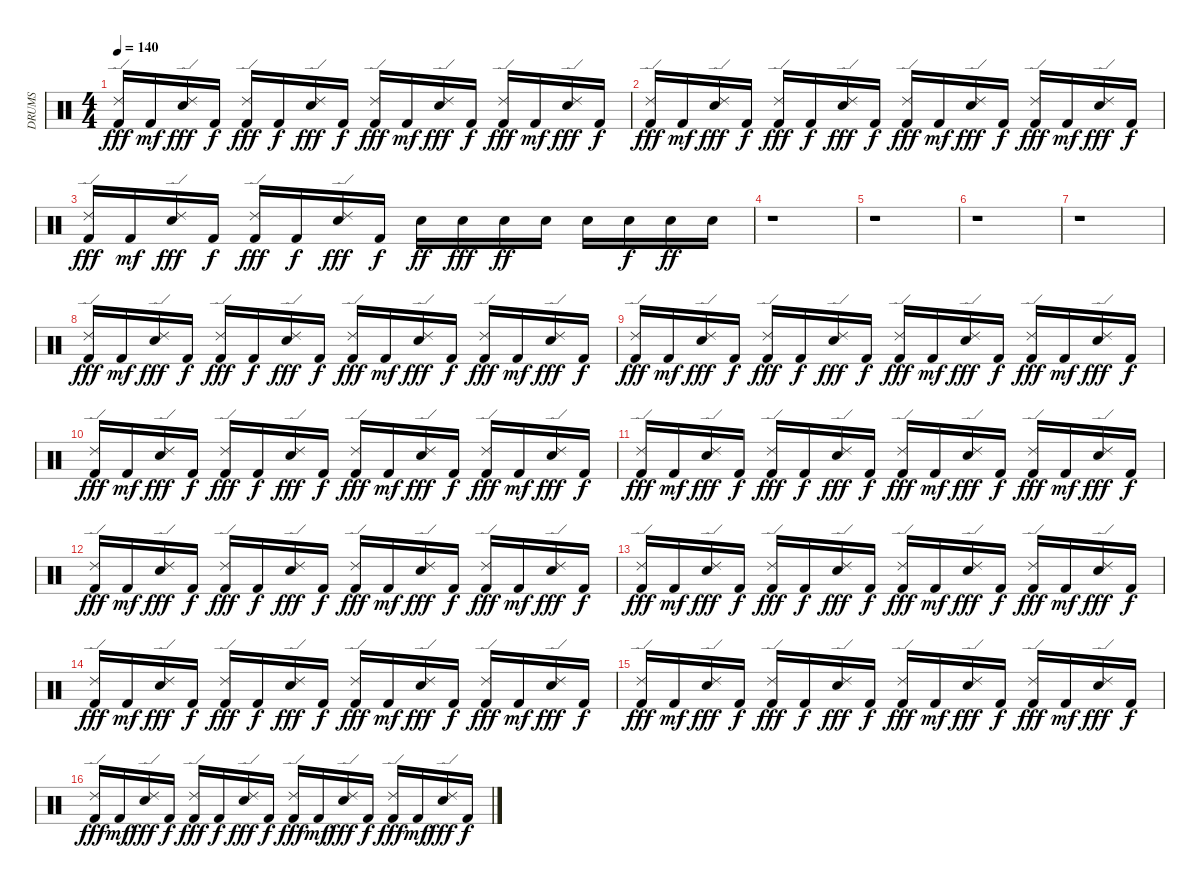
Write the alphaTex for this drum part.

\track ("DRUMS" "DRUMS") {instrument percussion}
\staff {score}
\articulation defaults
\ts (4 4)
\tempo 140
\clef neutral
\ks c
("Ride (edge) 2" "Kick (hit) 2").16{dy fff} "Kick (hit) 2".16{dy mf} ("Ride (edge) 2" "Electric Snare (hit)").16{dy fff} "Kick (hit) 2".16{dy f} ("Ride (edge) 2" "Kick (hit) 2").16{dy fff} "Kick (hit) 2".16{dy f} ("Ride (edge) 2" "Electric Snare (hit)").16{dy fff} "Kick (hit) 2".16{dy f} ("Ride (edge) 2" "Kick (hit) 2").16{dy fff} "Kick (hit) 2".16{dy mf} ("Ride (edge) 2" "Electric Snare (hit)").16{dy fff} "Kick (hit) 2".16{dy f} ("Ride (edge) 2" "Kick (hit) 2").16{dy fff} "Kick (hit) 2".16{dy mf} ("Electric Snare (hit)" "Ride (edge) 2").16{dy fff} "Kick (hit) 2".16{dy f} |
("Ride (edge) 2" "Kick (hit) 2").16{dy fff} "Kick (hit) 2".16{dy mf} ("Ride (edge) 2" "Electric Snare (hit)").16{dy fff} "Kick (hit) 2".16{dy f} ("Ride (edge) 2" "Kick (hit) 2").16{dy fff} "Kick (hit) 2".16{dy f} ("Ride (edge) 2" "Electric Snare (hit)").16{dy fff} "Kick (hit) 2".16{dy f} ("Ride (edge) 2" "Kick (hit) 2").16{dy fff} "Kick (hit) 2".16{dy mf} ("Ride (edge) 2" "Electric Snare (hit)").16{dy fff} "Kick (hit) 2".16{dy f} ("Ride (edge) 2" "Kick (hit) 2").16{dy fff} "Kick (hit) 2".16{dy mf} ("Electric Snare (hit)" "Ride (edge) 2").16{dy fff} "Kick (hit) 2".16{dy f} |
("Ride (edge) 2" "Kick (hit) 2").16{dy fff} "Kick (hit) 2".16{dy mf} ("Ride (edge) 2" "Electric Snare (hit)").16{dy fff} "Kick (hit) 2".16{dy f} ("Ride (edge) 2" "Kick (hit) 2").16{dy fff} "Kick (hit) 2".16{dy f} ("Ride (edge) 2" "Electric Snare (hit)").16{dy fff} "Kick (hit) 2".16{dy f} "Electric Snare (hit)".16{dy ff} "Electric Snare (hit)".16{dy fff} "Electric Snare (hit)".16{dy ff} "Electric Snare (hit)".16 "Electric Snare (hit)".16 "Electric Snare (hit)".16{dy f} "Electric Snare (hit)".16{dy ff} "Electric Snare (hit)".16 |
r.1 |
r.1 |
r.1 |
r.1 |
("Ride (edge) 2" "Kick (hit) 2").16{dy fff} "Kick (hit) 2".16{dy mf} ("Ride (edge) 2" "Electric Snare (hit)").16{dy fff} "Kick (hit) 2".16{dy f} ("Ride (edge) 2" "Kick (hit) 2").16{dy fff} "Kick (hit) 2".16{dy f} ("Ride (edge) 2" "Electric Snare (hit)").16{dy fff} "Kick (hit) 2".16{dy f} ("Ride (edge) 2" "Kick (hit) 2").16{dy fff} "Kick (hit) 2".16{dy mf} ("Ride (edge) 2" "Electric Snare (hit)").16{dy fff} "Kick (hit) 2".16{dy f} ("Ride (edge) 2" "Kick (hit) 2").16{dy fff} "Kick (hit) 2".16{dy mf} ("Electric Snare (hit)" "Ride (edge) 2").16{dy fff} "Kick (hit) 2".16{dy f} |
("Ride (edge) 2" "Kick (hit) 2").16{dy fff} "Kick (hit) 2".16{dy mf} ("Ride (edge) 2" "Electric Snare (hit)").16{dy fff} "Kick (hit) 2".16{dy f} ("Ride (edge) 2" "Kick (hit) 2").16{dy fff} "Kick (hit) 2".16{dy f} ("Ride (edge) 2" "Electric Snare (hit)").16{dy fff} "Kick (hit) 2".16{dy f} ("Ride (edge) 2" "Kick (hit) 2").16{dy fff} "Kick (hit) 2".16{dy mf} ("Ride (edge) 2" "Electric Snare (hit)").16{dy fff} "Kick (hit) 2".16{dy f} ("Ride (edge) 2" "Kick (hit) 2").16{dy fff} "Kick (hit) 2".16{dy mf} ("Electric Snare (hit)" "Ride (edge) 2").16{dy fff} "Kick (hit) 2".16{dy f} |
("Ride (edge) 2" "Kick (hit) 2").16{dy fff} "Kick (hit) 2".16{dy mf} ("Ride (edge) 2" "Electric Snare (hit)").16{dy fff} "Kick (hit) 2".16{dy f} ("Ride (edge) 2" "Kick (hit) 2").16{dy fff} "Kick (hit) 2".16{dy f} ("Ride (edge) 2" "Electric Snare (hit)").16{dy fff} "Kick (hit) 2".16{dy f} ("Ride (edge) 2" "Kick (hit) 2").16{dy fff} "Kick (hit) 2".16{dy mf} ("Ride (edge) 2" "Electric Snare (hit)").16{dy fff} "Kick (hit) 2".16{dy f} ("Ride (edge) 2" "Kick (hit) 2").16{dy fff} "Kick (hit) 2".16{dy mf} ("Electric Snare (hit)" "Ride (edge) 2").16{dy fff} "Kick (hit) 2".16{dy f} |
("Ride (edge) 2" "Kick (hit) 2").16{dy fff} "Kick (hit) 2".16{dy mf} ("Ride (edge) 2" "Electric Snare (hit)").16{dy fff} "Kick (hit) 2".16{dy f} ("Ride (edge) 2" "Kick (hit) 2").16{dy fff} "Kick (hit) 2".16{dy f} ("Ride (edge) 2" "Electric Snare (hit)").16{dy fff} "Kick (hit) 2".16{dy f} ("Ride (edge) 2" "Kick (hit) 2").16{dy fff} "Kick (hit) 2".16{dy mf} ("Ride (edge) 2" "Electric Snare (hit)").16{dy fff} "Kick (hit) 2".16{dy f} ("Ride (edge) 2" "Kick (hit) 2").16{dy fff} "Kick (hit) 2".16{dy mf} ("Electric Snare (hit)" "Ride (edge) 2").16{dy fff} "Kick (hit) 2".16{dy f} |
("Ride (edge) 2" "Kick (hit) 2").16{dy fff} "Kick (hit) 2".16{dy mf} ("Ride (edge) 2" "Electric Snare (hit)").16{dy fff} "Kick (hit) 2".16{dy f} ("Ride (edge) 2" "Kick (hit) 2").16{dy fff} "Kick (hit) 2".16{dy f} ("Ride (edge) 2" "Electric Snare (hit)").16{dy fff} "Kick (hit) 2".16{dy f} ("Ride (edge) 2" "Kick (hit) 2").16{dy fff} "Kick (hit) 2".16{dy mf} ("Ride (edge) 2" "Electric Snare (hit)").16{dy fff} "Kick (hit) 2".16{dy f} ("Ride (edge) 2" "Kick (hit) 2").16{dy fff} "Kick (hit) 2".16{dy mf} ("Electric Snare (hit)" "Ride (edge) 2").16{dy fff} "Kick (hit) 2".16{dy f} |
("Ride (edge) 2" "Kick (hit) 2").16{dy fff} "Kick (hit) 2".16{dy mf} ("Ride (edge) 2" "Electric Snare (hit)").16{dy fff} "Kick (hit) 2".16{dy f} ("Ride (edge) 2" "Kick (hit) 2").16{dy fff} "Kick (hit) 2".16{dy f} ("Ride (edge) 2" "Electric Snare (hit)").16{dy fff} "Kick (hit) 2".16{dy f} ("Ride (edge) 2" "Kick (hit) 2").16{dy fff} "Kick (hit) 2".16{dy mf} ("Ride (edge) 2" "Electric Snare (hit)").16{dy fff} "Kick (hit) 2".16{dy f} ("Ride (edge) 2" "Kick (hit) 2").16{dy fff} "Kick (hit) 2".16{dy mf} ("Electric Snare (hit)" "Ride (edge) 2").16{dy fff} "Kick (hit) 2".16{dy f} |
("Ride (edge) 2" "Kick (hit) 2").16{dy fff} "Kick (hit) 2".16{dy mf} ("Ride (edge) 2" "Electric Snare (hit)").16{dy fff} "Kick (hit) 2".16{dy f} ("Ride (edge) 2" "Kick (hit) 2").16{dy fff} "Kick (hit) 2".16{dy f} ("Ride (edge) 2" "Electric Snare (hit)").16{dy fff} "Kick (hit) 2".16{dy f} ("Ride (edge) 2" "Kick (hit) 2").16{dy fff} "Kick (hit) 2".16{dy mf} ("Ride (edge) 2" "Electric Snare (hit)").16{dy fff} "Kick (hit) 2".16{dy f} ("Ride (edge) 2" "Kick (hit) 2").16{dy fff} "Kick (hit) 2".16{dy mf} ("Electric Snare (hit)" "Ride (edge) 2").16{dy fff} "Kick (hit) 2".16{dy f} |
("Ride (edge) 2" "Kick (hit) 2").16{dy fff} "Kick (hit) 2".16{dy mf} ("Ride (edge) 2" "Electric Snare (hit)").16{dy fff} "Kick (hit) 2".16{dy f} ("Ride (edge) 2" "Kick (hit) 2").16{dy fff} "Kick (hit) 2".16{dy f} ("Ride (edge) 2" "Electric Snare (hit)").16{dy fff} "Kick (hit) 2".16{dy f} ("Ride (edge) 2" "Kick (hit) 2").16{dy fff} "Kick (hit) 2".16{dy mf} ("Ride (edge) 2" "Electric Snare (hit)").16{dy fff} "Kick (hit) 2".16{dy f} ("Ride (edge) 2" "Kick (hit) 2").16{dy fff} "Kick (hit) 2".16{dy mf} ("Electric Snare (hit)" "Ride (edge) 2").16{dy fff} "Kick (hit) 2".16{dy f} |
("Ride (edge) 2" "Kick (hit) 2").16{dy fff} "Kick (hit) 2".16{dy mf} ("Ride (edge) 2" "Electric Snare (hit)").16{dy fff} "Kick (hit) 2".16{dy f} ("Ride (edge) 2" "Kick (hit) 2").16{dy fff} "Kick (hit) 2".16{dy f} ("Ride (edge) 2" "Electric Snare (hit)").16{dy fff} "Kick (hit) 2".16{dy f} ("Ride (edge) 2" "Kick (hit) 2").16{dy fff} "Kick (hit) 2".16{dy mf} ("Ride (edge) 2" "Electric Snare (hit)").16{dy fff} "Kick (hit) 2".16{dy f} ("Ride (edge) 2" "Kick (hit) 2").16{dy fff} "Kick (hit) 2".16{dy mf} ("Electric Snare (hit)" "Ride (edge) 2").16{dy fff} "Kick (hit) 2".16{dy f}
